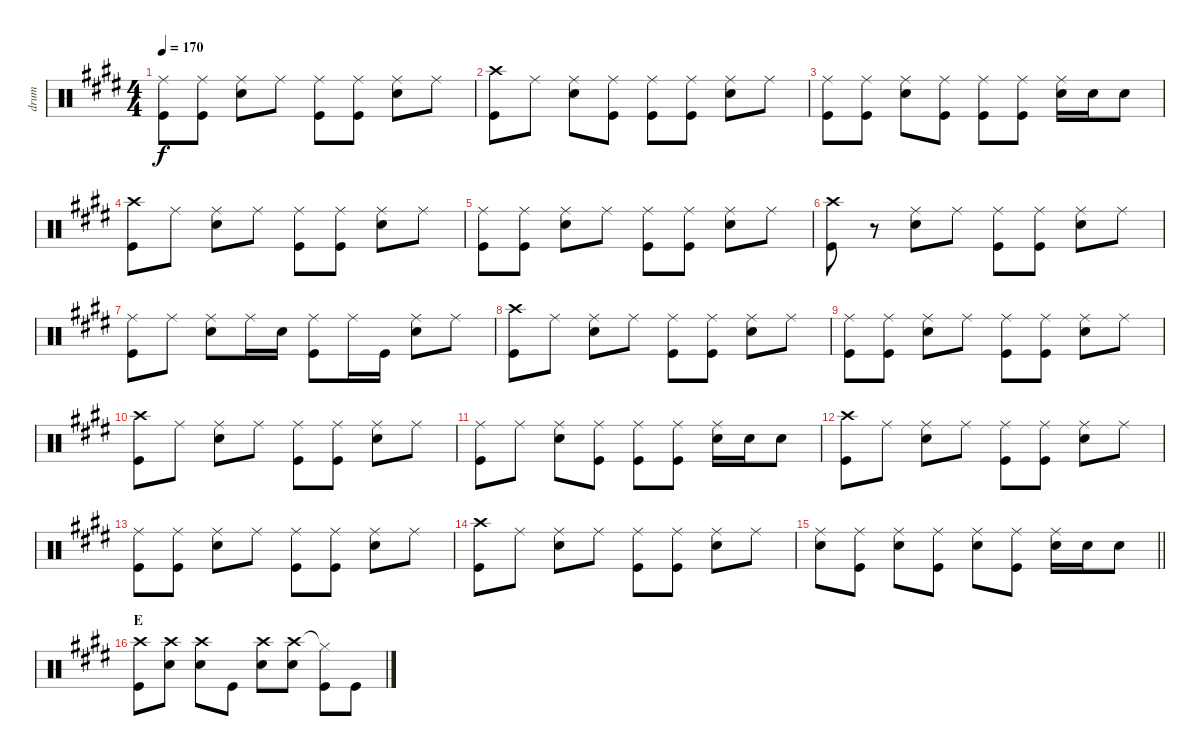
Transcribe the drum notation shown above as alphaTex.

\track ("drum" "drum") {instrument percussion}
\staff {score}
\articulation defaults
\ts (4 4)
\tempo 170
\clef neutral
\ks e
("Ride (middle)" "Kick (hit)").8{dy f} ("Ride (middle)" "Kick (hit)").8 ("Ride (middle)" "Snare (hit) 2").8 "Ride (middle)".8 ("Ride (middle)" "Kick (hit)").8 ("Ride (middle)" "Kick (hit)").8 ("Ride (middle)" "Snare (hit) 2").8 "Ride (middle)".8 |
("Crash high (hit)" "Kick (hit)").8 "Ride (middle)".8 ("Ride (middle)" "Snare (hit) 2").8 ("Ride (middle)" "Kick (hit)").8 ("Ride (middle)" "Kick (hit)").8 ("Ride (middle)" "Kick (hit)").8 ("Ride (middle)" "Snare (hit) 2").8 "Ride (middle)".8 |
("Ride (middle)" "Kick (hit)").8 ("Ride (middle)" "Kick (hit)").8 ("Ride (middle)" "Snare (hit) 2").8 ("Ride (middle)" "Kick (hit)").8 ("Ride (middle)" "Kick (hit)").8 ("Ride (middle)" "Kick (hit)").8 ("Ride (middle)" "Snare (hit) 2").16 "Snare (hit) 2".16 "Snare (hit) 2".8 |
("Crash high (hit)" "Kick (hit)").8 "Ride (middle)".8 ("Ride (middle)" "Snare (hit) 2").8 "Ride (middle)".8 ("Ride (middle)" "Kick (hit)").8 ("Ride (middle)" "Kick (hit)").8 ("Ride (middle)" "Snare (hit) 2").8 "Ride (middle)".8 |
("Ride (middle)" "Kick (hit)").8 ("Ride (middle)" "Kick (hit)").8 ("Ride (middle)" "Snare (hit) 2").8 "Ride (middle)".8 ("Ride (middle)" "Kick (hit)").8 ("Ride (middle)" "Kick (hit)").8 ("Ride (middle)" "Snare (hit) 2").8 "Ride (middle)".8 |
("Crash high (hit)" "Kick (hit)").8 r.8 ("Ride (middle)" "Snare (hit) 2").8 "Ride (middle)".8 ("Ride (middle)" "Kick (hit)").8 ("Ride (middle)" "Kick (hit)").8 ("Ride (middle)" "Snare (hit) 2").8 "Ride (middle)".8 |
("Ride (middle)" "Kick (hit)").8 "Ride (middle)".8 ("Ride (middle)" "Snare (hit) 2").8 "Ride (middle)".16 "Snare (hit) 2".16 ("Ride (middle)" "Kick (hit)").8 "Ride (middle)".16 "Kick (hit)".16 ("Ride (middle)" "Snare (hit) 2").8 "Ride (middle)".8 |
("Crash high (hit)" "Kick (hit)").8 "Ride (middle)".8 ("Ride (middle)" "Snare (hit) 2").8 "Ride (middle)".8 ("Ride (middle)" "Kick (hit)").8 ("Ride (middle)" "Kick (hit)").8 ("Ride (middle)" "Snare (hit) 2").8 "Ride (middle)".8 |
("Ride (middle)" "Kick (hit)").8 ("Ride (middle)" "Kick (hit)").8 ("Ride (middle)" "Snare (hit) 2").8 "Ride (middle)".8 ("Ride (middle)" "Kick (hit)").8 ("Ride (middle)" "Kick (hit)").8 ("Ride (middle)" "Snare (hit) 2").8 "Ride (middle)".8 |
("Crash high (hit)" "Kick (hit)").8 "Ride (middle)".8 ("Ride (middle)" "Snare (hit) 2").8 "Ride (middle)".8 ("Ride (middle)" "Kick (hit)").8 ("Ride (middle)" "Kick (hit)").8 ("Ride (middle)" "Snare (hit) 2").8 "Ride (middle)".8 |
("Ride (middle)" "Kick (hit)").8 "Ride (middle)".8 ("Ride (middle)" "Snare (hit) 2").8 ("Ride (middle)" "Kick (hit)").8 ("Ride (middle)" "Kick (hit)").8 ("Ride (middle)" "Kick (hit)").8 ("Ride (middle)" "Snare (hit) 2").16 "Snare (hit) 2".16 "Snare (hit) 2".8 |
("Crash high (hit)" "Kick (hit)").8 "Ride (middle)".8 ("Ride (middle)" "Snare (hit) 2").8 "Ride (middle)".8 ("Ride (middle)" "Kick (hit)").8 ("Ride (middle)" "Kick (hit)").8 ("Ride (middle)" "Snare (hit) 2").8 "Ride (middle)".8 |
("Ride (middle)" "Kick (hit)").8 ("Ride (middle)" "Kick (hit)").8 ("Ride (middle)" "Snare (hit) 2").8 "Ride (middle)".8 ("Ride (middle)" "Kick (hit)").8 ("Ride (middle)" "Kick (hit)").8 ("Ride (middle)" "Snare (hit) 2").8 "Ride (middle)".8 |
("Crash high (hit)" "Kick (hit)").8 "Ride (middle)".8 ("Ride (middle)" "Snare (hit) 2").8 "Ride (middle)".8 ("Ride (middle)" "Kick (hit)").8 ("Ride (middle)" "Kick (hit)").8 ("Ride (middle)" "Snare (hit) 2").8 "Ride (middle)".8 |
\barLineRight lightlight
("Ride (middle)" "Snare (hit) 2").8 ("Ride (middle)" "Kick (hit)").8 ("Ride (middle)" "Snare (hit) 2").8 ("Ride (middle)" "Kick (hit)").8 ("Ride (middle)" "Snare (hit) 2").8 ("Ride (middle)" "Kick (hit)").8 ("Ride (middle)" "Snare (hit) 2").16 "Snare (hit) 2".16 "Snare (hit) 2".8 |
\section ("" "E")
("Crash high (hit)" "Kick (hit)").8 ("Crash high (hit)" "Snare (hit) 2").8 ("Crash high (hit)" "Snare (hit) 2").8 "Kick (hit)".8 ("Crash high (hit)" "Snare (hit) 2").8 ("Crash high (hit)" "Snare (hit) 2").8 ("Hi-Hat (closed)"{t} "Kick (hit)").8 "Kick (hit)".8
